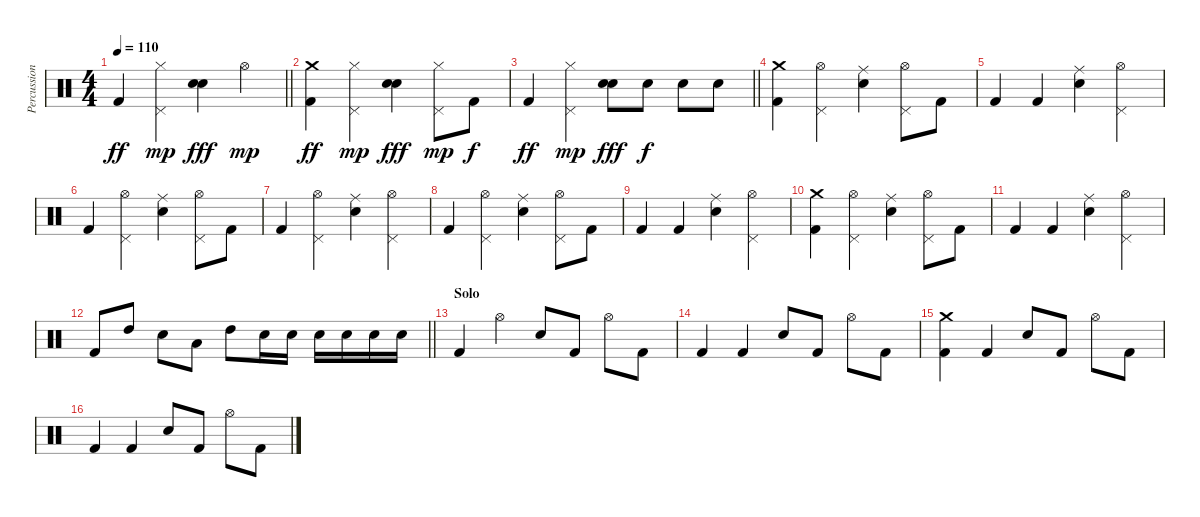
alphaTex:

\track ("Percussion" "Percussion") {instrument percussion}
\staff {score}
\articulation defaults
\ts (4 4)
\tempo 110
\clef neutral
\barLineRight lightlight
\ks c "Kick (hit) 2".4{dy ff}
("Hi-Hat (closed)" "Pedal Hi-Hat (hit)").4{dy mp} ("Electric Snare (hit)" "Electric Snare (hit)").4{dy fff} "Hi-Hat (open)".4{dy mp} |
("Crash medium (hit)" "Kick (hit) 2").4{dy ff} ("Hi-Hat (closed)" "Pedal Hi-Hat (hit)").4{dy mp} ("Electric Snare (hit)" "Electric Snare (hit)").4{dy fff} ("Hi-Hat (closed)" "Pedal Hi-Hat (hit)").8{dy mp} "Kick (hit) 2".8{dy f} |
\barLineRight lightlight "Kick (hit) 2".4{dy ff}
("Hi-Hat (closed)" "Pedal Hi-Hat (hit)").4{dy mp} ("Electric Snare (hit)" "Electric Snare (hit)").8{dy fff} "Electric Snare (hit)".8{dy f} "Electric Snare (hit)".8 "Electric Snare (hit)".8 |
("Crash medium (hit)" "Kick (hit) 2").4 ("Hi-Hat (open)" "Pedal Hi-Hat (hit)").4 ("Ride (middle)" "Electric Snare (hit)").4 ("Hi-Hat (open)" "Pedal Hi-Hat (hit)").8 "Kick (hit) 2".8 |
"Kick (hit) 2".4 "Kick (hit) 2".4 ("Ride (middle)" "Electric Snare (hit)").4 ("Hi-Hat (open)" "Pedal Hi-Hat (hit)").4 |
"Kick (hit) 2".4 ("Hi-Hat (open)" "Pedal Hi-Hat (hit)").4 ("Ride (middle)" "Electric Snare (hit)").4 ("Hi-Hat (open)" "Pedal Hi-Hat (hit)").8 "Kick (hit) 2".8 |
"Kick (hit) 2".4 ("Hi-Hat (open)" "Pedal Hi-Hat (hit)").4 ("Ride (middle)" "Electric Snare (hit)").4 ("Hi-Hat (open)" "Pedal Hi-Hat (hit)").4 |
"Kick (hit) 2".4 ("Hi-Hat (open)" "Pedal Hi-Hat (hit)").4 ("Ride (middle)" "Electric Snare (hit)").4 ("Hi-Hat (open)" "Pedal Hi-Hat (hit)").8 "Kick (hit) 2".8 |
"Kick (hit) 2".4 "Kick (hit) 2".4 ("Ride (middle)" "Electric Snare (hit)").4 ("Hi-Hat (open)" "Pedal Hi-Hat (hit)").4 |
("Crash medium (hit)" "Kick (hit) 2").4 ("Hi-Hat (open)" "Pedal Hi-Hat (hit)").4 ("Ride (middle)" "Electric Snare (hit)").4 ("Hi-Hat (open)" "Pedal Hi-Hat (hit)").8 "Kick (hit) 2".8 |
"Kick (hit) 2".4 "Kick (hit) 2".4 ("Ride (middle)" "Electric Snare (hit)").4 ("Hi-Hat (open)" "Pedal Hi-Hat (hit)").4 |
\barLineRight lightlight "Kick (hit) 2".8 "High Tom (hit)".8 "Electric Snare (hit)".8 "Low Tom (hit)".8 "High Tom (hit)".8 "Electric Snare (hit)".16 "Electric Snare (hit)".16 "Electric Snare (hit)".16 "Electric Snare (hit)".16 "Electric Snare (hit)".16 "Electric Snare (hit)".16
|
\section ("" "Solo")
"Kick (hit) 2".4 "Hi-Hat (open)".4 "Electric Snare (hit)".8 "Kick (hit) 2".8 "Hi-Hat (open)".8 "Kick (hit) 2".8 |
"Kick (hit) 2".4 "Kick (hit) 2".4 "Electric Snare (hit)".8 "Kick (hit) 2".8 "Hi-Hat (open)".8 "Kick (hit) 2".8 |
("Crash medium (hit)" "Kick (hit) 2").4 "Kick (hit) 2".4 "Electric Snare (hit)".8 "Kick (hit) 2".8 "Hi-Hat (open)".8 "Kick (hit) 2".8 |
"Kick (hit) 2".4 "Kick (hit) 2".4 "Electric Snare (hit)".8 "Kick (hit) 2".8 "Hi-Hat (open)".8 "Kick (hit) 2".8
